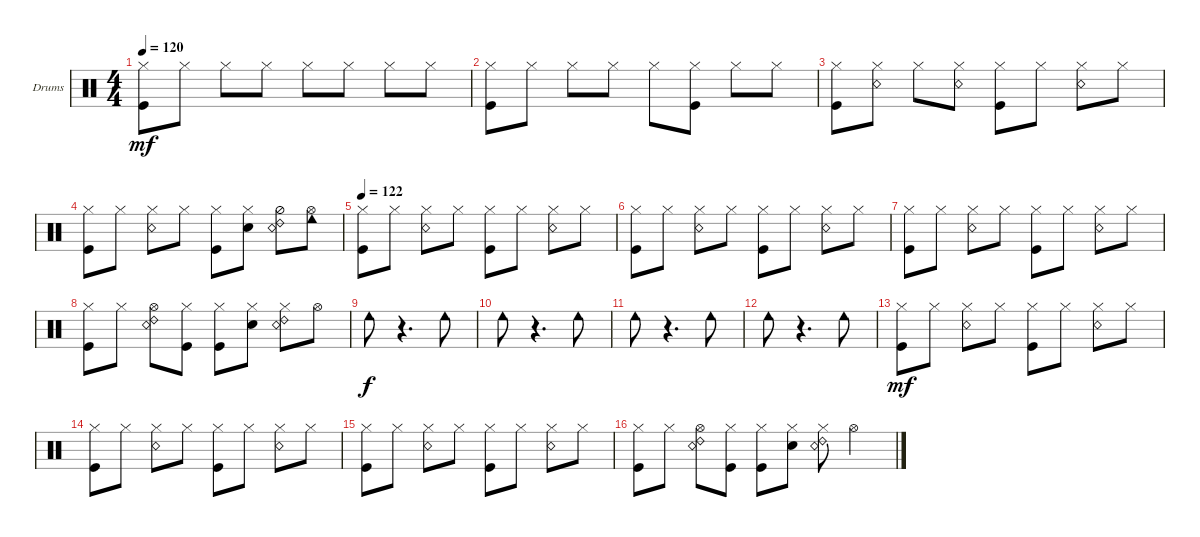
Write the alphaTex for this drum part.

\defaultSystemsLayout 4
\bracketExtendMode groupsimilarinstruments
\firstSystemTrackNameOrientation horizontal
\otherSystemsTrackNameOrientation horizontal
\track ("Drumkit" "Drums") {instrument percussion}
\staff {score}
\articulation defaults
\ts (4 4)
\tempo 120
\clef neutral
\ks c
("Hi-Hat (closed)" "Kick (hit)").8{dy mf} "Hi-Hat (closed)".8 "Hi-Hat (closed)".8 "Hi-Hat (closed)".8 "Hi-Hat (closed)".8 "Hi-Hat (closed)".8 "Hi-Hat (closed)".8 "Hi-Hat (closed)".8 |
("Hi-Hat (closed)" "Kick (hit)").8 "Hi-Hat (closed)".8 "Hi-Hat (closed)".8 "Hi-Hat (closed)".8 "Hi-Hat (closed)".8 ("Hi-Hat (closed)" "Kick (hit)").8 "Hi-Hat (closed)".8 "Hi-Hat (closed)".8 |
("Hi-Hat (closed)" "Kick (hit)").8 ("Hi-Hat (closed)" "Snare (rim shot)").8 "Hi-Hat (closed)".8 ("Hi-Hat (closed)" "Snare (rim shot)").8 ("Hi-Hat (closed)" "Kick (hit)").8 "Hi-Hat (closed)".8 ("Hi-Hat (closed)" "Snare (rim shot)").8 "Hi-Hat (closed)".8 |
("Hi-Hat (closed)" "Kick (hit)").8 "Hi-Hat (closed)".8 ("Hi-Hat (closed)" "Snare (rim shot)").8 "Hi-Hat (closed)".8 ("Hi-Hat (closed)" "Kick (hit)").8 ("Hi-Hat (closed)" "Snare (hit) 2").8 ("Hi-Hat (half)" "Snare (rim shot)" "Ride (bell) 2").8 ("Hi-Hat (open)" "Cowbell low (hit)").8 |
\tempo 122
("Hi-Hat (closed)" "Kick (hit)").8 "Hi-Hat (closed)".8 ("Hi-Hat (closed)" "Snare (rim shot)").8 "Hi-Hat (closed)".8 ("Hi-Hat (closed)" "Kick (hit)").8 "Hi-Hat (closed)".8 ("Hi-Hat (closed)" "Snare (rim shot)").8 "Hi-Hat (closed)".8 |
("Hi-Hat (closed)" "Kick (hit)").8 "Hi-Hat (closed)".8 ("Hi-Hat (closed)" "Snare (rim shot)").8 "Hi-Hat (closed)".8 ("Hi-Hat (closed)" "Kick (hit)").8 "Hi-Hat (closed)".8 ("Hi-Hat (closed)" "Snare (rim shot)").8 "Hi-Hat (closed)".8 |
("Hi-Hat (closed)" "Kick (hit)").8 "Hi-Hat (closed)".8 ("Hi-Hat (closed)" "Snare (rim shot)").8 "Hi-Hat (closed)".8 ("Hi-Hat (closed)" "Kick (hit)").8 "Hi-Hat (closed)".8 ("Hi-Hat (closed)" "Snare (rim shot)").8 "Hi-Hat (closed)".8 |
("Hi-Hat (closed)" "Kick (hit)").8 "Hi-Hat (closed)".8 ("Hi-Hat (open)" "Snare (rim shot)" "Ride (bell) 2").8 ("Hi-Hat (closed)" "Kick (hit)").8 ("Hi-Hat (closed)" "Kick (hit)").8 ("Hi-Hat (closed)" "Snare (hit) 2").8 ("Hi-Hat (closed)" "Snare (rim shot)" "Ride (bell) 2").8 "Hi-Hat (open)".8 |
"Cowbell low (hit)".8{dy f} r.4{d} "Cowbell low (hit)".8 |
"Cowbell low (hit)".8 r.4{d} "Cowbell low (hit)".8 |
"Cowbell low (hit)".8 r.4{d} "Cowbell low (hit)".8 |
"Cowbell low (hit)".8 r.4{d} "Cowbell low (hit)".8 |
("Hi-Hat (closed)" "Kick (hit)").8{dy mf} "Hi-Hat (closed)".8 ("Hi-Hat (closed)" "Snare (rim shot)").8 "Hi-Hat (closed)".8 ("Hi-Hat (closed)" "Kick (hit)").8 "Hi-Hat (closed)".8 ("Hi-Hat (closed)" "Snare (rim shot)").8 "Hi-Hat (closed)".8 |
("Hi-Hat (closed)" "Kick (hit)").8 "Hi-Hat (closed)".8 ("Hi-Hat (closed)" "Snare (rim shot)").8 "Hi-Hat (closed)".8 ("Hi-Hat (closed)" "Kick (hit)").8 "Hi-Hat (closed)".8 ("Hi-Hat (closed)" "Snare (rim shot)").8 "Hi-Hat (closed)".8 |
("Hi-Hat (closed)" "Kick (hit)").8 "Hi-Hat (closed)".8 ("Hi-Hat (closed)" "Snare (rim shot)").8 "Hi-Hat (closed)".8 ("Hi-Hat (closed)" "Kick (hit)").8 "Hi-Hat (closed)".8 ("Hi-Hat (closed)" "Snare (rim shot)").8 "Hi-Hat (closed)".8 |
("Hi-Hat (closed)" "Kick (hit)").8 "Hi-Hat (closed)".8 ("Hi-Hat (open)" "Snare (rim shot)" "Ride (bell) 2").8 ("Hi-Hat (closed)" "Kick (hit)").8 ("Hi-Hat (closed)" "Kick (hit)").8 ("Hi-Hat (closed)" "Snare (hit) 2").8 ("Hi-Hat (closed)" "Snare (rim shot)" "Ride (bell) 2").8 "Hi-Hat (open)".2
